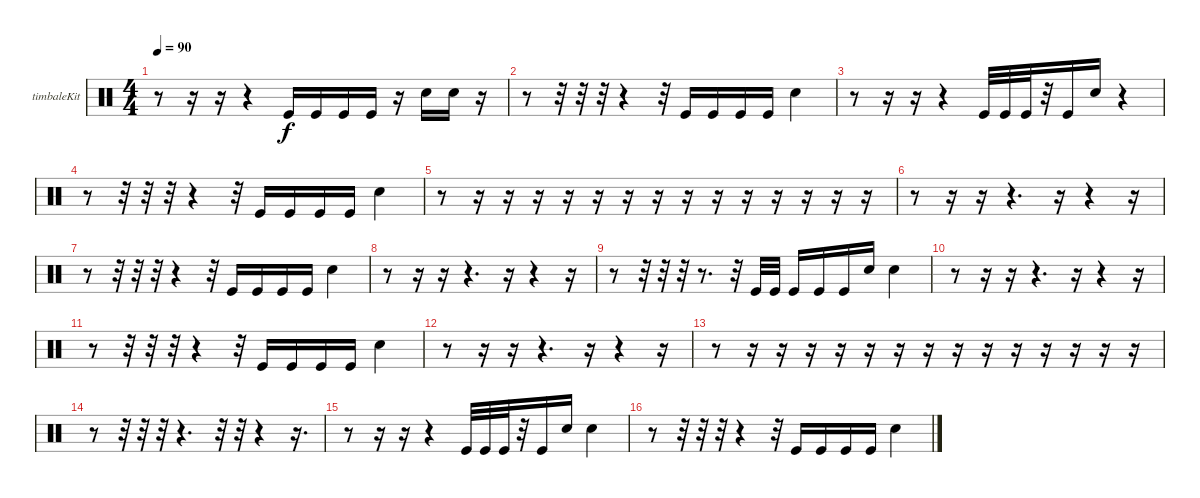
\defaultSystemsLayout 4
\bracketExtendMode groupsimilarinstruments
\firstSystemTrackNameOrientation horizontal
\otherSystemsTrackNameOrientation horizontal
\track ("Timbale" "timbaleKit") {instrument percussion}
\staff {score}
\articulation defaults
\ts (4 4)
\tempo 90
\clef neutral
\scale
0.333333
\ks c
r.8{dy f} r.16 r.16 r.4 "Kick (hit)".16 "Kick (hit)".16 "Kick (hit)".16 "Kick (hit)".16 r.16 "Snare (hit) 2".16 "Snare (hit) 2".16 r.16 |
\scale
0.333333 r.8 r.32 r.32 r.32 r.4 r.32 "Kick (hit)".16 "Kick (hit)".16 "Kick (hit)".16 "Kick (hit)".16 "Snare (hit) 2".4 |
\scale
0.333333 r.8 r.16 r.16 r.4 "Kick (hit)".32 "Kick (hit)".32 "Kick (hit)".32 r.32 "Kick (hit)".16 "Snare (hit) 2".16 r.4 |
\scale
0.333333 r.8 r.32 r.32 r.32 r.4 r.32 "Kick (hit)".16 "Kick (hit)".16 "Kick (hit)".16 "Kick (hit)".16 "Snare (hit) 2".4 |
\scale
0.333333 r.8 r.16 r.16 r.16 r.16 r.16 r.16 r.16 r.16 r.16 r.16 r.16 r.16 r.16 r.16 |
\scale
0.333333 r.8 r.16 r.16 r.4{d} r.16 r.4 r.16 |
\scale
0.333333 r.8 r.32 r.32 r.32 r.4 r.32 "Kick (hit)".16 "Kick (hit)".16 "Kick (hit)".16 "Kick (hit)".16 "Snare (hit) 2".4 |
\scale
0.333333 r.8 r.16 r.16 r.4{d} r.16 r.4 r.16 |
\scale
0.333333 r.8 r.32 r.32 r.32 r.8{d} r.32 "Kick (hit)".32 "Kick (hit)".32 "Kick (hit)".16 "Kick (hit)".16 "Kick (hit)".16 "Snare (hit) 2".16 "Snare (hit) 2".4 |
\scale
0.333333 r.8 r.16 r.16 r.4{d} r.16 r.4 r.16 |
\scale
0.333333 r.8 r.32 r.32 r.32 r.4 r.32 "Kick (hit)".16 "Kick (hit)".16 "Kick (hit)".16 "Kick (hit)".16 "Snare (hit) 2".4 |
\scale
0.333333 r.8 r.16 r.16 r.4{d} r.16 r.4 r.16 |
\scale
0.333333 r.8 r.16 r.16 r.16 r.16 r.16 r.16 r.16 r.16 r.16 r.16 r.16 r.16 r.16 r.16 |
\scale
0.333333 r.8 r.32 r.32 r.32 r.4{d} r.32 r.32 r.4 r.16{d} |
\scale
0.333333 r.8 r.16 r.16 r.4 "Kick (hit)".32 "Kick (hit)".32 "Kick (hit)".32 r.32 "Kick (hit)".16 "Snare (hit) 2".16 "Snare (hit) 2".4 |
\scale
0.333333 r.8 r.32 r.32 r.32 r.4 r.32 "Kick (hit)".16 "Kick (hit)".16 "Kick (hit)".16 "Kick (hit)".16 "Snare (hit) 2".4
